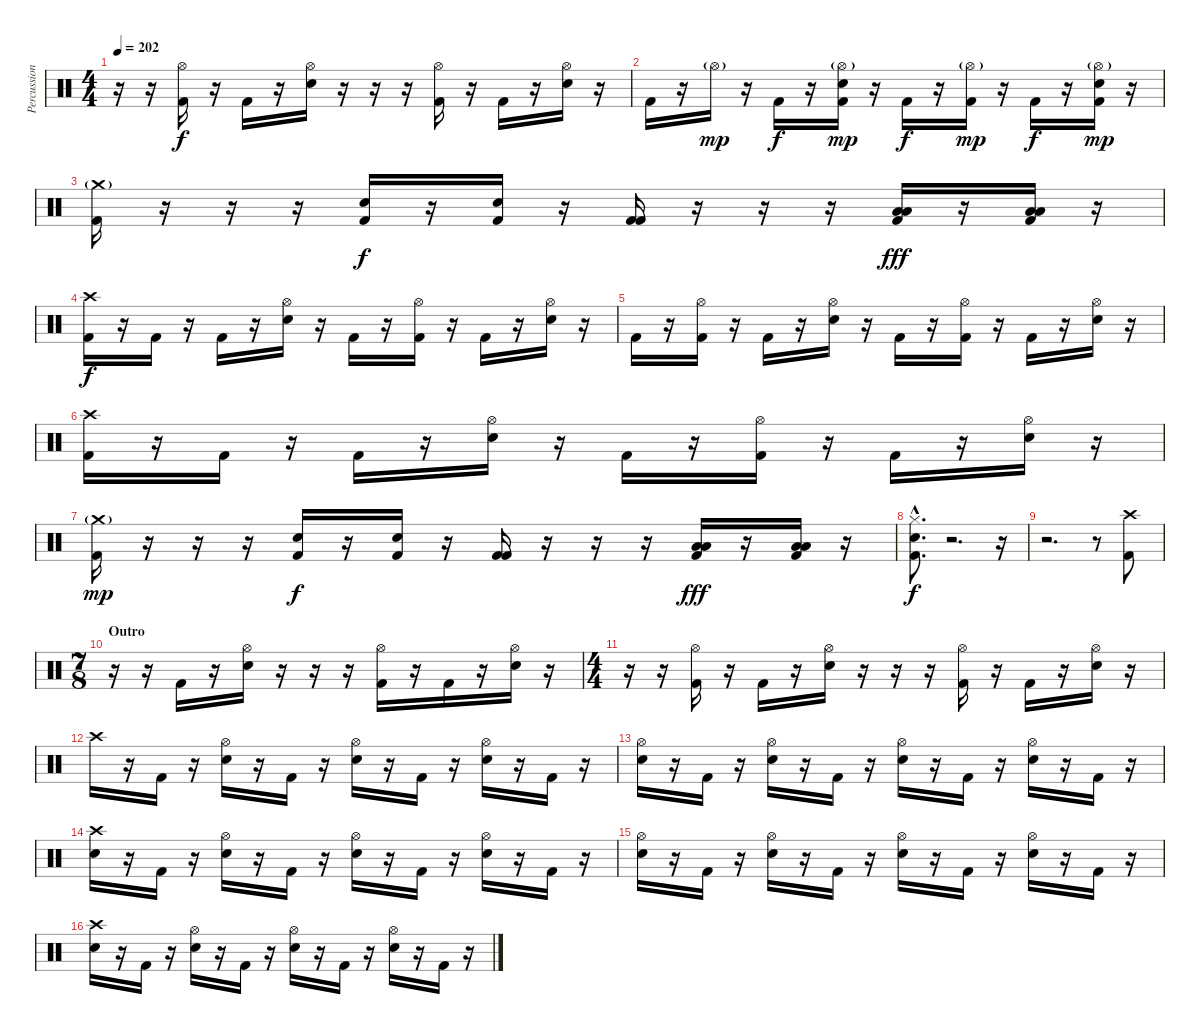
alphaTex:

\track ("Percussion" "Percussion") {instrument percussion}
\staff {score}
\articulation defaults
\ts (4 4)
\tempo 202
\clef neutral
\ks c
r.16{dy f} r.16 ("Hi-Hat (open)" "Kick (hit) 2").16 r.16 "Kick (hit) 2".16 r.16 ("Hi-Hat (open)" "Electric Snare (hit)").16 r.16 r.16 r.16 ("Hi-Hat (open)" "Kick (hit) 2").16 r.16 "Kick (hit) 2".16 r.16 ("Hi-Hat (open)" "Electric Snare (hit)").16 r.16 |
"Kick (hit) 2".16 r.16 "Hi-Hat (open)"{g}.16{dy mp} r.16 "Kick (hit) 2".16{dy f} r.16 ("Hi-Hat (open)"{g} "Electric Snare (hit)" "Kick (hit) 2").16{dy mp} r.16 "Kick (hit) 2".16{dy f} r.16 ("Hi-Hat (open)"{g} "Kick (hit) 2").16{dy mp} r.16 "Kick (hit) 2".16{dy f} r.16 ("Hi-Hat (open)"{g} "Electric Snare (hit)" "Kick (hit) 2").16{dy mp} r.16 |
("Crash medium (hit)"{g} "Kick (hit) 2").16 r.16 r.16 r.16 ("Electric Snare (hit)" "Kick (hit) 2").16{dy f} r.16 ("Electric Snare (hit)" "Kick (hit) 2").16 r.16 ("Kick (hit) 2" "Kick (hit) 2").16 r.16 r.16 r.16 ("Low Tom (hit)" "Low Tom (hit)" "Kick (hit) 2").16{dy fff} r.16 ("Low Tom (hit)" "Low Tom (hit)" "Kick (hit) 2").16 r.16 |
("Crash high (hit)" "Kick (hit) 2").16{dy f} r.16 "Kick (hit) 2".16 r.16 "Kick (hit) 2".16 r.16 ("Hi-Hat (open)" "Electric Snare (hit)").16 r.16 "Kick (hit) 2".16 r.16 ("Hi-Hat (open)" "Kick (hit) 2").16 r.16 "Kick (hit) 2".16 r.16 ("Hi-Hat (open)" "Electric Snare (hit)").16 r.16 |
"Kick (hit) 2".16 r.16 ("Hi-Hat (open)" "Kick (hit) 2").16 r.16 "Kick (hit) 2".16 r.16 ("Hi-Hat (open)" "Electric Snare (hit)").16 r.16 "Kick (hit) 2".16 r.16 ("Hi-Hat (open)" "Kick (hit) 2").16 r.16 "Kick (hit) 2".16 r.16 ("Hi-Hat (open)" "Electric Snare (hit)").16 r.16 |
("Crash high (hit)" "Kick (hit) 2").16 r.16 "Kick (hit) 2".16 r.16 "Kick (hit) 2".16 r.16 ("Hi-Hat (open)" "Electric Snare (hit)").16 r.16 "Kick (hit) 2".16 r.16 ("Hi-Hat (open)" "Kick (hit) 2").16 r.16 "Kick (hit) 2".16 r.16 ("Hi-Hat (open)" "Electric Snare (hit)").16 r.16 |
("Crash medium (hit)"{g} "Kick (hit) 2").16{dy mp} r.16 r.16 r.16 ("Electric Snare (hit)" "Kick (hit) 2").16{dy f} r.16 ("Electric Snare (hit)" "Kick (hit) 2").16 r.16 ("Kick (hit) 2" "Kick (hit) 2").16 r.16 r.16 r.16 ("Low Tom (hit)" "Low Tom (hit)" "Kick (hit) 2").16{dy fff} r.16 ("Low Tom (hit)" "Low Tom (hit)" "Kick (hit) 2").16 r.16 |
("Hi-Hat (closed)"{hac} "Electric Snare (hit)"{hac} "Kick (hit) 2"{hac}).8{d dy f} r.2{d} r.16 |
r.2{d} r.8 ("Crash high (hit)" "Kick (hit) 2").8 |
\ts (7 8)
\section ("" "Outro")
r.16 r.16 "Kick (hit) 2".16 r.16 ("Hi-Hat (open)" "Electric Snare (hit)").16 r.16 r.16 r.16 ("Hi-Hat (open)" "Kick (hit) 2").16 r.16 "Kick (hit) 2".16 r.16 ("Hi-Hat (open)" "Electric Snare (hit)").16 r.16 |
\ts (4 4)
r.16 r.16 ("Hi-Hat (open)" "Kick (hit) 2").16 r.16 "Kick (hit) 2".16 r.16 ("Hi-Hat (open)" "Electric Snare (hit)").16 r.16 r.16 r.16 ("Hi-Hat (open)" "Kick (hit) 2").16 r.16 "Kick (hit) 2".16 r.16 ("Hi-Hat (open)" "Electric Snare (hit)").16 r.16 |
"Crash high (hit)".16 r.16 "Kick (hit) 2".16 r.16 ("Hi-Hat (open)" "Electric Snare (hit)").16 r.16 "Kick (hit) 2".16 r.16 ("Hi-Hat (open)" "Electric Snare (hit)").16 r.16 "Kick (hit) 2".16 r.16 ("Hi-Hat (open)" "Electric Snare (hit)").16 r.16 "Kick (hit) 2".16 r.16 |
("Hi-Hat (open)" "Electric Snare (hit)").16 r.16 "Kick (hit) 2".16 r.16 ("Hi-Hat (open)" "Electric Snare (hit)").16 r.16 "Kick (hit) 2".16 r.16 ("Hi-Hat (open)" "Electric Snare (hit)").16 r.16 "Kick (hit) 2".16 r.16 ("Hi-Hat (open)" "Electric Snare (hit)").16 r.16 "Kick (hit) 2".16 r.16 |
("Crash high (hit)" "Electric Snare (hit)").16 r.16 "Kick (hit) 2".16 r.16 ("Hi-Hat (open)" "Electric Snare (hit)").16 r.16 "Kick (hit) 2".16 r.16 ("Hi-Hat (open)" "Electric Snare (hit)").16 r.16 "Kick (hit) 2".16 r.16 ("Hi-Hat (open)" "Electric Snare (hit)").16 r.16 "Kick (hit) 2".16 r.16 |
("Hi-Hat (open)" "Electric Snare (hit)").16 r.16 "Kick (hit) 2".16 r.16 ("Hi-Hat (open)" "Electric Snare (hit)").16 r.16 "Kick (hit) 2".16 r.16 ("Hi-Hat (open)" "Electric Snare (hit)").16 r.16 "Kick (hit) 2".16 r.16 ("Hi-Hat (open)" "Electric Snare (hit)").16 r.16 "Kick (hit) 2".16 r.16 |
("Crash high (hit)" "Electric Snare (hit)").16 r.16 "Kick (hit) 2".16 r.16 ("Hi-Hat (open)" "Electric Snare (hit)").16 r.16 "Kick (hit) 2".16 r.16 ("Hi-Hat (open)" "Electric Snare (hit)").16 r.16 "Kick (hit) 2".16 r.16 ("Hi-Hat (open)" "Electric Snare (hit)").16 r.16 "Kick (hit) 2".16 r.16
